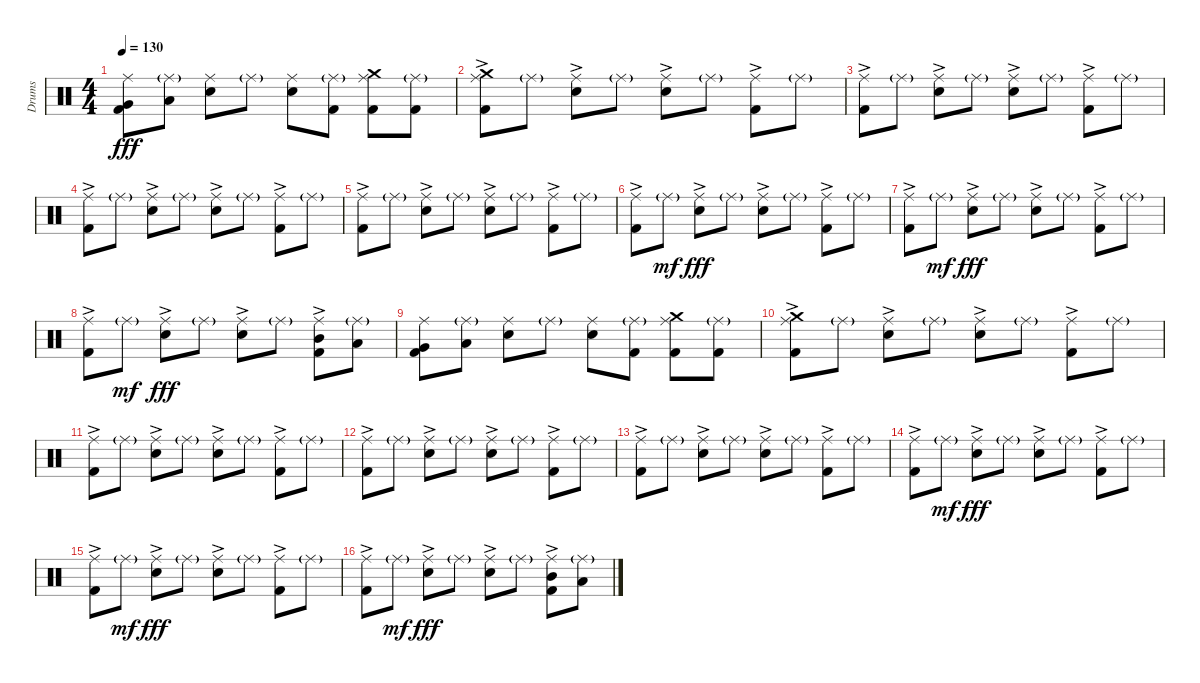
\track ("Drums" "Drums") {instrument percussion}
\staff {score}
\articulation defaults
\ts (4 4)
\tempo 130
\clef neutral
\ks c
("Ride (middle)" "Very Low Tom (hit)" "Kick (hit) 2").8{dy fff} ("Ride (middle)"{g} "Low Floor Tom (hit)").8 ("Ride (middle)" "Electric Snare (hit)").8 "Ride (middle)"{g}.8 ("Ride (middle)" "Electric Snare (hit)").8 ("Ride (middle)"{g} "Kick (hit) 2").8 ("Ride (middle)" "Crash medium (hit)" "Kick (hit) 2").8 ("Ride (middle)"{g} "Kick (hit) 2").8 |
("Crash medium (hit)" "Ride (middle)"{ac} "Kick (hit) 2").8 "Ride (middle)"{g}.8 ("Ride (middle)"{ac} "Electric Snare (hit)").8 "Ride (middle)"{g}.8 ("Ride (middle)"{ac} "Electric Snare (hit)").8 "Ride (middle)"{g}.8 ("Ride (middle)"{ac} "Kick (hit) 2").8 "Ride (middle)"{g}.8 |
("Ride (middle)"{ac} "Kick (hit) 2").8 "Ride (middle)"{g}.8 ("Ride (middle)"{ac} "Electric Snare (hit)").8 "Ride (middle)"{g}.8 ("Ride (middle)"{ac} "Electric Snare (hit)").8 "Ride (middle)"{g}.8 ("Ride (middle)"{ac} "Kick (hit) 2").8 "Ride (middle)"{g}.8 |
("Ride (middle)"{ac} "Kick (hit) 2").8 "Ride (middle)"{g}.8 ("Ride (middle)"{ac} "Electric Snare (hit)").8 "Ride (middle)"{g}.8 ("Ride (middle)"{ac} "Electric Snare (hit)").8 "Ride (middle)"{g}.8 ("Ride (middle)"{ac} "Kick (hit) 2").8 "Ride (middle)"{g}.8 |
("Ride (middle)"{ac} "Kick (hit) 2").8 "Ride (middle)"{g}.8 ("Ride (middle)"{ac} "Electric Snare (hit)").8 "Ride (middle)"{g}.8 ("Ride (middle)"{ac} "Electric Snare (hit)").8 "Ride (middle)"{g}.8 ("Ride (middle)"{ac} "Kick (hit) 2").8 "Ride (middle)"{g}.8 |
("Ride (middle)"{ac} "Kick (hit) 2").8 "Ride (middle)"{g}.8{dy mf} ("Ride (middle)"{ac} "Electric Snare (hit)").8{dy fff} "Ride (middle)"{g}.8 ("Ride (middle)"{ac} "Electric Snare (hit)").8 "Ride (middle)"{g}.8 ("Ride (middle)"{ac} "Kick (hit) 2").8 "Ride (middle)"{g}.8 |
("Ride (middle)"{ac} "Kick (hit) 2").8 "Ride (middle)"{g}.8{dy mf} ("Ride (middle)"{ac} "Electric Snare (hit)").8{dy fff} "Ride (middle)"{g}.8 ("Ride (middle)"{ac} "Electric Snare (hit)").8 "Ride (middle)"{g}.8 ("Ride (middle)"{ac} "Kick (hit) 2").8 "Ride (middle)"{g}.8 |
("Ride (middle)"{ac} "Kick (hit) 2").8 "Ride (middle)"{g}.8{dy mf} ("Ride (middle)"{ac} "Electric Snare (hit)").8{dy fff} "Ride (middle)"{g}.8 ("Ride (middle)"{ac} "Electric Snare (hit)").8 "Ride (middle)"{g}.8 ("Ride (middle)"{ac} "Mid Tom (hit)" "Kick (hit) 2").8 ("Ride (middle)"{g} "Low Tom (hit)").8 |
("Ride (middle)" "Very Low Tom (hit)" "Kick (hit) 2").8 ("Ride (middle)"{g} "Low Floor Tom (hit)").8 ("Ride (middle)" "Electric Snare (hit)").8 "Ride (middle)"{g}.8 ("Ride (middle)" "Electric Snare (hit)").8 ("Ride (middle)"{g} "Kick (hit) 2").8 ("Ride (middle)" "Crash medium (hit)" "Kick (hit) 2").8 ("Ride (middle)"{g} "Kick (hit) 2").8 |
("Crash medium (hit)" "Ride (middle)"{ac} "Kick (hit) 2").8 "Ride (middle)"{g}.8 ("Ride (middle)"{ac} "Electric Snare (hit)").8 "Ride (middle)"{g}.8 ("Ride (middle)"{ac} "Electric Snare (hit)").8 "Ride (middle)"{g}.8 ("Ride (middle)"{ac} "Kick (hit) 2").8 "Ride (middle)"{g}.8 |
("Ride (middle)"{ac} "Kick (hit) 2").8 "Ride (middle)"{g}.8 ("Ride (middle)"{ac} "Electric Snare (hit)").8 "Ride (middle)"{g}.8 ("Ride (middle)"{ac} "Electric Snare (hit)").8 "Ride (middle)"{g}.8 ("Ride (middle)"{ac} "Kick (hit) 2").8 "Ride (middle)"{g}.8 |
("Ride (middle)"{ac} "Kick (hit) 2").8 "Ride (middle)"{g}.8 ("Ride (middle)"{ac} "Electric Snare (hit)").8 "Ride (middle)"{g}.8 ("Ride (middle)"{ac} "Electric Snare (hit)").8 "Ride (middle)"{g}.8 ("Ride (middle)"{ac} "Kick (hit) 2").8 "Ride (middle)"{g}.8 |
("Ride (middle)"{ac} "Kick (hit) 2").8 "Ride (middle)"{g}.8 ("Ride (middle)"{ac} "Electric Snare (hit)").8 "Ride (middle)"{g}.8 ("Ride (middle)"{ac} "Electric Snare (hit)").8 "Ride (middle)"{g}.8 ("Ride (middle)"{ac} "Kick (hit) 2").8 "Ride (middle)"{g}.8 |
("Ride (middle)"{ac} "Kick (hit) 2").8 "Ride (middle)"{g}.8{dy mf} ("Ride (middle)"{ac} "Electric Snare (hit)").8{dy fff} "Ride (middle)"{g}.8 ("Ride (middle)"{ac} "Electric Snare (hit)").8 "Ride (middle)"{g}.8 ("Ride (middle)"{ac} "Kick (hit) 2").8 "Ride (middle)"{g}.8 |
("Ride (middle)"{ac} "Kick (hit) 2").8 "Ride (middle)"{g}.8{dy mf} ("Ride (middle)"{ac} "Electric Snare (hit)").8{dy fff} "Ride (middle)"{g}.8 ("Ride (middle)"{ac} "Electric Snare (hit)").8 "Ride (middle)"{g}.8 ("Ride (middle)"{ac} "Kick (hit) 2").8 "Ride (middle)"{g}.8 |
("Ride (middle)"{ac} "Kick (hit) 2").8 "Ride (middle)"{g}.8{dy mf} ("Ride (middle)"{ac} "Electric Snare (hit)").8{dy fff} "Ride (middle)"{g}.8 ("Ride (middle)"{ac} "Electric Snare (hit)").8 "Ride (middle)"{g}.8 ("Ride (middle)"{ac} "Mid Tom (hit)" "Kick (hit) 2").8 ("Ride (middle)"{g} "Low Tom (hit)").8
